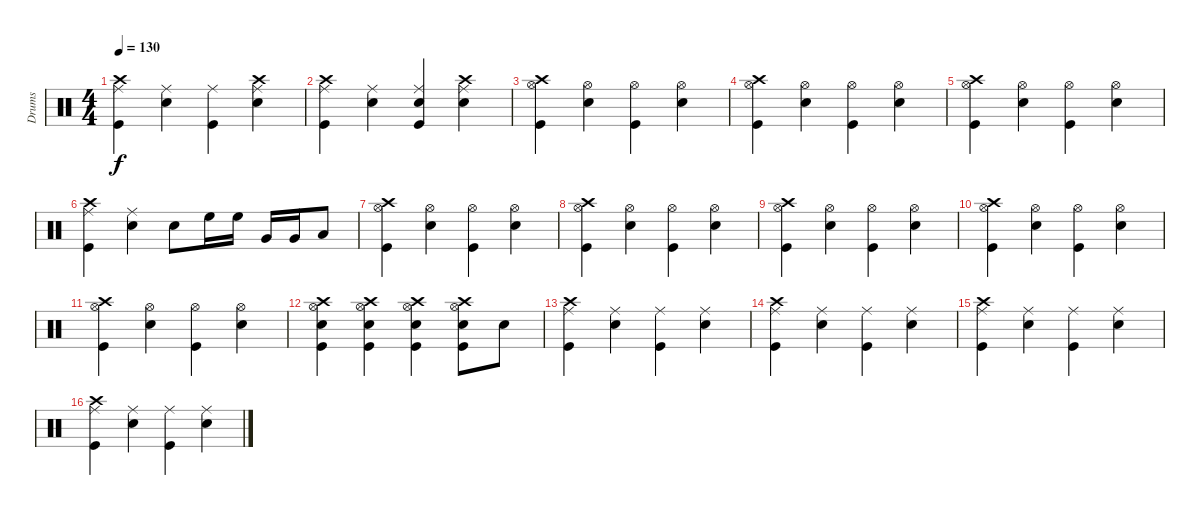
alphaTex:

\track ("Drums" "Drums") {instrument percussion}
\staff {score}
\articulation defaults
\ts (4 4)
\tempo 130
\clef neutral
\ks c
("Kick (hit)" "Crash high (hit)" "Ride (middle)").4{dy f} ("Snare (hit) 2" "Ride (middle)").4 ("Kick (hit)" "Ride (middle)").4 ("Snare (hit) 2" "Crash high (hit)" "Ride (middle)").4 |
("Kick (hit)" "Crash high (hit)" "Ride (middle)").4 ("Snare (hit) 2" "Ride (middle)").4 ("Kick (hit)" "Snare (hit) 2" "Ride (middle)").4 ("Snare (hit) 2" "Crash high (hit)" "Ride (middle)").4 |
("Kick (hit)" "Crash high (hit)" "Hi-Hat (open)").4 ("Snare (hit) 2" "Hi-Hat (open)").4 ("Kick (hit)" "Hi-Hat (open)").4 ("Snare (hit) 2" "Hi-Hat (open)").4 |
("Kick (hit)" "Crash high (hit)" "Hi-Hat (open)").4 ("Snare (hit) 2" "Hi-Hat (open)").4 ("Kick (hit)" "Hi-Hat (open)").4 ("Snare (hit) 2" "Hi-Hat (open)").4 |
("Kick (hit)" "Crash high (hit)" "Hi-Hat (open)").4 ("Snare (hit) 2" "Hi-Hat (open)").4 ("Kick (hit)" "Hi-Hat (open)").4 ("Snare (hit) 2" "Hi-Hat (open)").4 |
("Kick (hit)" "Crash high (hit)" "Ride (middle)").4 ("Snare (hit) 2" "Ride (middle)").4 "Snare (hit) 2".8 "High Floor Tom (hit)".16 "High Floor Tom (hit)".16 "Very Low Tom (hit)".16 "Very Low Tom (hit)".16 "Low Tom (hit)".8 |
("Kick (hit)" "Crash high (hit)" "Hi-Hat (open)").4 ("Snare (hit) 2" "Hi-Hat (open)").4 ("Kick (hit)" "Hi-Hat (open)").4 ("Snare (hit) 2" "Hi-Hat (open)").4 |
("Kick (hit)" "Crash high (hit)" "Hi-Hat (open)").4 ("Snare (hit) 2" "Hi-Hat (open)").4 ("Kick (hit)" "Hi-Hat (open)").4 ("Snare (hit) 2" "Hi-Hat (open)").4 |
("Kick (hit)" "Crash high (hit)" "Hi-Hat (open)").4 ("Snare (hit) 2" "Hi-Hat (open)").4 ("Kick (hit)" "Hi-Hat (open)").4 ("Snare (hit) 2" "Hi-Hat (open)").4 |
("Kick (hit)" "Crash high (hit)" "Hi-Hat (open)").4 ("Snare (hit) 2" "Hi-Hat (open)").4 ("Kick (hit)" "Hi-Hat (open)").4 ("Snare (hit) 2" "Hi-Hat (open)").4 |
("Kick (hit)" "Crash high (hit)" "Hi-Hat (open)").4 ("Snare (hit) 2" "Hi-Hat (open)").4 ("Kick (hit)" "Hi-Hat (open)").4 ("Snare (hit) 2" "Hi-Hat (open)").4 |
("Kick (hit)" "Snare (hit) 2" "Crash high (hit)" "Hi-Hat (open)").4 ("Kick (hit)" "Snare (hit) 2" "Crash high (hit)" "Hi-Hat (open)").4 ("Kick (hit)" "Snare (hit) 2" "Crash high (hit)" "Hi-Hat (open)").4 ("Kick (hit)" "Snare (hit) 2" "Crash high (hit)" "Hi-Hat (open)").8 "Snare (hit) 2".8 |
("Kick (hit)" "Crash high (hit)" "Ride (middle)").4 ("Snare (hit) 2" "Ride (middle)").4 ("Kick (hit)" "Ride (middle)").4 ("Snare (hit) 2" "Ride (middle)").4 |
("Kick (hit)" "Crash high (hit)" "Ride (middle)").4 ("Snare (hit) 2" "Ride (middle)").4 ("Kick (hit)" "Ride (middle)").4 ("Snare (hit) 2" "Ride (middle)").4 |
("Kick (hit)" "Crash high (hit)" "Ride (middle)").4 ("Snare (hit) 2" "Ride (middle)").4 ("Kick (hit)" "Ride (middle)").4 ("Snare (hit) 2" "Ride (middle)").4 |
("Kick (hit)" "Crash high (hit)" "Ride (middle)").4 ("Snare (hit) 2" "Ride (middle)").4 ("Kick (hit)" "Ride (middle)").4 ("Snare (hit) 2" "Ride (middle)").4
